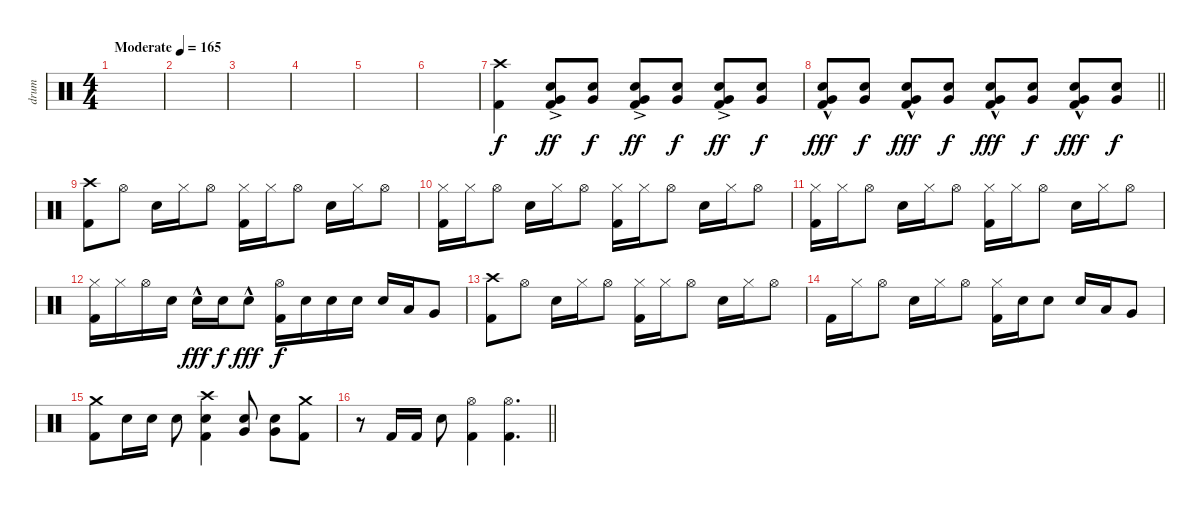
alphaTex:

\track ("drum" "drum") {instrument percussion}
\staff {score}
\articulation defaults
\ts (4 4)
\tempo (165 "Moderate")
\clef neutral
\ks c
|
|
|
|
|
|
("Crash high (hit)" "Kick (hit) 2").4 ("Very Low Tom (hit)" "Electric Snare (hit)"{ac} "Kick (hit) 2").8{dy ff} ("Very Low Tom (hit)" "Electric Snare (hit)").8{dy f} ("Very Low Tom (hit)" "Electric Snare (hit)"{ac} "Kick (hit) 2").8{dy ff} ("Very Low Tom (hit)" "Electric Snare (hit)").8{dy f} ("Very Low Tom (hit)" "Electric Snare (hit)"{ac} "Kick (hit) 2").8{dy ff} ("Very Low Tom (hit)" "Electric Snare (hit)").8{dy f} |
\barLineRight lightlight
("Very Low Tom (hit)" "Electric Snare (hit)"{hac} "Kick (hit) 2").8{dy fff} ("Very Low Tom (hit)" "Electric Snare (hit)").8{dy f} ("Very Low Tom (hit)" "Electric Snare (hit)"{hac} "Kick (hit) 2").8{dy fff} ("Very Low Tom (hit)" "Electric Snare (hit)").8{dy f} ("Very Low Tom (hit)" "Electric Snare (hit)"{hac} "Kick (hit) 2").8{dy fff} ("Very Low Tom (hit)" "Electric Snare (hit)").8{dy f} ("Very Low Tom (hit)" "Electric Snare (hit)"{hac} "Kick (hit) 2").8{dy fff} ("Very Low Tom (hit)" "Electric Snare (hit)").8{dy f} |
("Crash high (hit)" "Kick (hit) 2").8 "Hi-Hat (open)".8 "Electric Snare (hit)".16 "Hi-Hat (closed)".16 "Hi-Hat (open)".8 ("Hi-Hat (closed)" "Kick (hit) 2").16 "Hi-Hat (closed)".16 "Hi-Hat (open)".8 "Electric Snare (hit)".16 "Hi-Hat (closed)".16 "Hi-Hat (open)".8 |
("Hi-Hat (closed)" "Kick (hit) 2").16 "Hi-Hat (closed)".16 "Hi-Hat (open)".8 "Electric Snare (hit)".16 "Hi-Hat (closed)".16 "Hi-Hat (open)".8 ("Hi-Hat (closed)" "Kick (hit) 2").16 "Hi-Hat (closed)".16 "Hi-Hat (open)".8 "Electric Snare (hit)".16 "Hi-Hat (closed)".16 "Hi-Hat (open)".8 |
("Hi-Hat (closed)" "Kick (hit) 2").16 "Hi-Hat (closed)".16 "Hi-Hat (open)".8 "Electric Snare (hit)".16 "Hi-Hat (closed)".16 "Hi-Hat (open)".8 ("Hi-Hat (closed)" "Kick (hit) 2").16 "Hi-Hat (closed)".16 "Hi-Hat (open)".8 "Electric Snare (hit)".16 "Hi-Hat (closed)".16 "Hi-Hat (open)".8 |
("Hi-Hat (closed)" "Kick (hit) 2").16 "Hi-Hat (closed)".16 "Hi-Hat (open)".16 "Electric Snare (hit)".16 "Electric Snare (hit)"{hac}.16{dy fff} "Electric Snare (hit)".16{dy f} "Electric Snare (hit)"{hac}.8{dy fff} ("Hi-Hat (open)" "Kick (hit) 2").16{dy f} "Electric Snare (hit)".16 "Electric Snare (hit)".16 "Electric Snare (hit)".16 "Electric Snare (hit)".16 "Low Tom (hit)".16 "Very Low Tom (hit)".8 |
("Crash high (hit)" "Kick (hit) 2").8 "Hi-Hat (open)".8 "Electric Snare (hit)".16 "Hi-Hat (closed)".16 "Hi-Hat (open)".8 ("Hi-Hat (closed)" "Kick (hit) 2").16 "Hi-Hat (closed)".16 "Hi-Hat (open)".8 "Electric Snare (hit)".16 "Hi-Hat (closed)".16 "Hi-Hat (open)".8 |
"Kick (hit) 2".16 "Hi-Hat (closed)".16 "Hi-Hat (open)".8 "Electric Snare (hit)".16 "Hi-Hat (closed)".16 "Hi-Hat (open)".8 ("Hi-Hat (closed)" "Kick (hit) 2").16 "Electric Snare (hit)".16 "Electric Snare (hit)".8 "Electric Snare (hit)".16 "Low Tom (hit)".16 "Very Low Tom (hit)".8 |
("Crash medium (hit)" "Kick (hit) 2").8 "Electric Snare (hit)".16 "Electric Snare (hit)".16 "Electric Snare (hit)".8 ("Crash high (hit)" "Electric Snare (hit)" "Kick (hit) 2").4 ("Electric Snare (hit)" "Very Low Tom (hit)").8 ("Electric Snare (hit)" "Very Low Tom (hit)").8 ("Crash medium (hit)" "Kick (hit) 2").8 |
\barLineRight lightlight
r.8 "Kick (hit) 2".16 "Kick (hit) 2".16 "Electric Snare (hit)".8 ("Hi-Hat (open)" "Kick (hit) 2").4 ("Hi-Hat (open)" "Kick (hit) 2").4{d}
